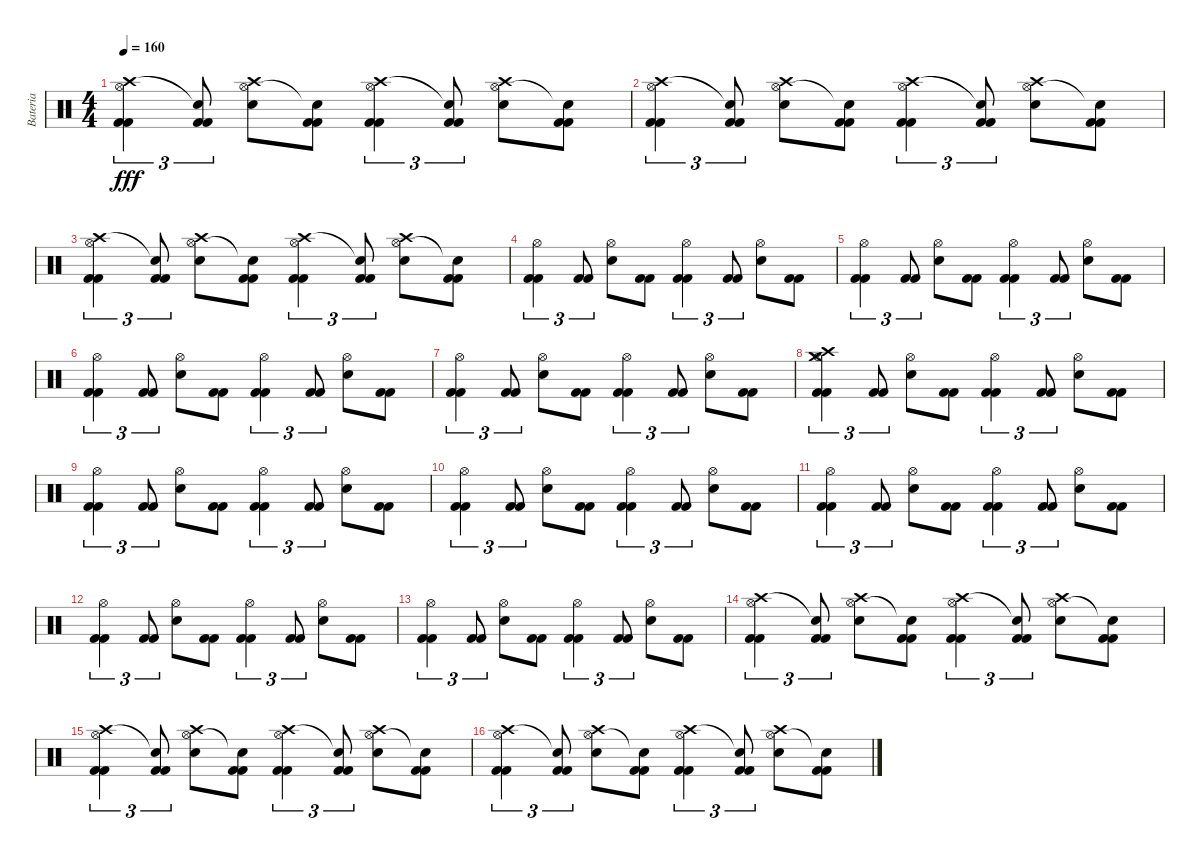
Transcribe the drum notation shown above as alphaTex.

\track ("Bateria" "Bateria") {instrument percussion}
\staff {score}
\articulation defaults
\ts (4 4)
\tempo 160
\clef neutral
\ks c
("Kick (hit) 2" "Kick (hit) 2" "Crash high (hit)" "Hi-Hat (open)").4{tu (3 2) dy fff} ("Kick (hit) 2" "Kick (hit) 2" "Snare (hit)"{t}).8{tu (3 2)} ("Snare (hit) 2" "Crash high (hit)" "Hi-Hat (open)").8 ("Kick (hit) 2" "Kick (hit) 2" "Snare (hit)"{t}).8 ("Kick (hit) 2" "Kick (hit) 2" "Crash high (hit)" "Hi-Hat (open)").4{tu (3 2)} ("Kick (hit) 2" "Kick (hit) 2" "Snare (hit)"{t}).8{tu (3 2)} ("Snare (hit) 2" "Crash high (hit)" "Hi-Hat (open)").8 ("Kick (hit) 2" "Kick (hit) 2" "Snare (hit)"{t}).8 |
("Kick (hit) 2" "Kick (hit) 2" "Crash high (hit)" "Hi-Hat (open)").4{tu (3 2)} ("Kick (hit) 2" "Kick (hit) 2" "Snare (hit)"{t}).8{tu (3 2)} ("Snare (hit) 2" "Crash high (hit)" "Hi-Hat (open)").8 ("Kick (hit) 2" "Kick (hit) 2" "Snare (hit)"{t}).8 ("Kick (hit) 2" "Kick (hit) 2" "Crash high (hit)" "Hi-Hat (open)").4{tu (3 2)} ("Kick (hit) 2" "Kick (hit) 2" "Snare (hit)"{t}).8{tu (3 2)} ("Snare (hit) 2" "Crash high (hit)" "Hi-Hat (open)").8 ("Kick (hit) 2" "Kick (hit) 2" "Snare (hit)"{t}).8 |
("Kick (hit) 2" "Kick (hit) 2" "Crash high (hit)" "Hi-Hat (open)").4{tu (3 2)} ("Kick (hit) 2" "Kick (hit) 2" "Snare (hit)"{t}).8{tu (3 2)} ("Snare (hit) 2" "Crash high (hit)" "Hi-Hat (open)").8 ("Kick (hit) 2" "Kick (hit) 2" "Snare (hit)"{t}).8 ("Kick (hit) 2" "Kick (hit) 2" "Crash high (hit)" "Hi-Hat (open)").4{tu (3 2)} ("Kick (hit) 2" "Kick (hit) 2" "Snare (hit)"{t}).8{tu (3 2)} ("Snare (hit) 2" "Crash high (hit)" "Hi-Hat (open)").8 ("Kick (hit) 2" "Kick (hit) 2" "Snare (hit)"{t}).8 |
("Kick (hit) 2" "Kick (hit) 2" "Hi-Hat (open)").4{tu (3 2)} ("Kick (hit) 2" "Kick (hit) 2").8{tu (3 2)} ("Snare (hit) 2" "Hi-Hat (open)").8 ("Kick (hit) 2" "Kick (hit) 2").8 ("Kick (hit) 2" "Kick (hit) 2" "Hi-Hat (open)").4{tu (3 2)} ("Kick (hit) 2" "Kick (hit) 2").8{tu (3 2)} ("Snare (hit) 2" "Hi-Hat (open)").8 ("Kick (hit) 2" "Kick (hit) 2").8 |
("Kick (hit) 2" "Kick (hit) 2" "Hi-Hat (open)").4{tu (3 2)} ("Kick (hit) 2" "Kick (hit) 2").8{tu (3 2)} ("Snare (hit) 2" "Hi-Hat (open)").8 ("Kick (hit) 2" "Kick (hit) 2").8 ("Kick (hit) 2" "Kick (hit) 2" "Hi-Hat (open)").4{tu (3 2)} ("Kick (hit) 2" "Kick (hit) 2").8{tu (3 2)} ("Snare (hit) 2" "Hi-Hat (open)").8 ("Kick (hit) 2" "Kick (hit) 2").8 |
("Kick (hit) 2" "Kick (hit) 2" "Hi-Hat (open)").4{tu (3 2)} ("Kick (hit) 2" "Kick (hit) 2").8{tu (3 2)} ("Snare (hit) 2" "Hi-Hat (open)").8 ("Kick (hit) 2" "Kick (hit) 2").8 ("Kick (hit) 2" "Kick (hit) 2" "Hi-Hat (open)").4{tu (3 2)} ("Kick (hit) 2" "Kick (hit) 2").8{tu (3 2)} ("Snare (hit) 2" "Hi-Hat (open)").8 ("Kick (hit) 2" "Kick (hit) 2").8 |
("Kick (hit) 2" "Kick (hit) 2" "Hi-Hat (open)").4{tu (3 2)} ("Kick (hit) 2" "Kick (hit) 2").8{tu (3 2)} ("Snare (hit) 2" "Hi-Hat (open)").8 ("Kick (hit) 2" "Kick (hit) 2").8 ("Kick (hit) 2" "Kick (hit) 2" "Hi-Hat (open)").4{tu (3 2)} ("Kick (hit) 2" "Kick (hit) 2").8{tu (3 2)} ("Snare (hit) 2" "Hi-Hat (open)").8 ("Kick (hit) 2" "Kick (hit) 2").8 |
("Kick (hit) 2" "Kick (hit) 2" "Crash medium (hit)" "Crash high (hit)" "Hi-Hat (open)").4{tu (3 2)} ("Kick (hit) 2" "Kick (hit) 2").8{tu (3 2)} ("Snare (hit) 2" "Hi-Hat (open)").8 ("Kick (hit) 2" "Kick (hit) 2").8 ("Kick (hit) 2" "Kick (hit) 2" "Hi-Hat (open)").4{tu (3 2)} ("Kick (hit) 2" "Kick (hit) 2").8{tu (3 2)} ("Snare (hit) 2" "Hi-Hat (open)").8 ("Kick (hit) 2" "Kick (hit) 2").8 |
("Kick (hit) 2" "Kick (hit) 2" "Hi-Hat (open)").4{tu (3 2)} ("Kick (hit) 2" "Kick (hit) 2").8{tu (3 2)} ("Snare (hit) 2" "Hi-Hat (open)").8 ("Kick (hit) 2" "Kick (hit) 2").8 ("Kick (hit) 2" "Kick (hit) 2" "Hi-Hat (open)").4{tu (3 2)} ("Kick (hit) 2" "Kick (hit) 2").8{tu (3 2)} ("Snare (hit) 2" "Hi-Hat (open)").8 ("Kick (hit) 2" "Kick (hit) 2").8 |
("Kick (hit) 2" "Kick (hit) 2" "Hi-Hat (open)").4{tu (3 2)} ("Kick (hit) 2" "Kick (hit) 2").8{tu (3 2)} ("Snare (hit) 2" "Hi-Hat (open)").8 ("Kick (hit) 2" "Kick (hit) 2").8 ("Kick (hit) 2" "Kick (hit) 2" "Hi-Hat (open)").4{tu (3 2)} ("Kick (hit) 2" "Kick (hit) 2").8{tu (3 2)} ("Snare (hit) 2" "Hi-Hat (open)").8 ("Kick (hit) 2" "Kick (hit) 2").8 |
("Kick (hit) 2" "Kick (hit) 2" "Hi-Hat (open)").4{tu (3 2)} ("Kick (hit) 2" "Kick (hit) 2").8{tu (3 2)} ("Snare (hit) 2" "Hi-Hat (open)").8 ("Kick (hit) 2" "Kick (hit) 2").8 ("Kick (hit) 2" "Kick (hit) 2" "Hi-Hat (open)").4{tu (3 2)} ("Kick (hit) 2" "Kick (hit) 2").8{tu (3 2)} ("Snare (hit) 2" "Hi-Hat (open)").8 ("Kick (hit) 2" "Kick (hit) 2").8 |
("Kick (hit) 2" "Kick (hit) 2" "Hi-Hat (open)").4{tu (3 2)} ("Kick (hit) 2" "Kick (hit) 2").8{tu (3 2)} ("Snare (hit) 2" "Hi-Hat (open)").8 ("Kick (hit) 2" "Kick (hit) 2").8 ("Kick (hit) 2" "Kick (hit) 2" "Hi-Hat (open)").4{tu (3 2)} ("Kick (hit) 2" "Kick (hit) 2").8{tu (3 2)} ("Snare (hit) 2" "Hi-Hat (open)").8 ("Kick (hit) 2" "Kick (hit) 2").8 |
("Kick (hit) 2" "Kick (hit) 2" "Hi-Hat (open)").4{tu (3 2)} ("Kick (hit) 2" "Kick (hit) 2").8{tu (3 2)} ("Snare (hit) 2" "Hi-Hat (open)").8 ("Kick (hit) 2" "Kick (hit) 2").8 ("Kick (hit) 2" "Kick (hit) 2" "Hi-Hat (open)").4{tu (3 2)} ("Kick (hit) 2" "Kick (hit) 2").8{tu (3 2)} ("Snare (hit) 2" "Hi-Hat (open)").8 ("Kick (hit) 2" "Kick (hit) 2").8 |
("Kick (hit) 2" "Kick (hit) 2" "Crash high (hit)" "Hi-Hat (open)").4{tu (3 2)} ("Kick (hit) 2" "Kick (hit) 2" "Snare (hit)"{t}).8{tu (3 2)} ("Snare (hit) 2" "Crash high (hit)" "Hi-Hat (open)").8 ("Kick (hit) 2" "Kick (hit) 2" "Snare (hit)"{t}).8 ("Kick (hit) 2" "Kick (hit) 2" "Crash high (hit)" "Hi-Hat (open)").4{tu (3 2)} ("Kick (hit) 2" "Kick (hit) 2" "Snare (hit)"{t}).8{tu (3 2)} ("Snare (hit) 2" "Crash high (hit)" "Hi-Hat (open)").8 ("Kick (hit) 2" "Kick (hit) 2" "Snare (hit)"{t}).8 |
("Kick (hit) 2" "Kick (hit) 2" "Crash high (hit)" "Hi-Hat (open)").4{tu (3 2)} ("Kick (hit) 2" "Kick (hit) 2" "Snare (hit)"{t}).8{tu (3 2)} ("Snare (hit) 2" "Crash high (hit)" "Hi-Hat (open)").8 ("Kick (hit) 2" "Kick (hit) 2" "Snare (hit)"{t}).8 ("Kick (hit) 2" "Kick (hit) 2" "Crash high (hit)" "Hi-Hat (open)").4{tu (3 2)} ("Kick (hit) 2" "Kick (hit) 2" "Snare (hit)"{t}).8{tu (3 2)} ("Snare (hit) 2" "Crash high (hit)" "Hi-Hat (open)").8 ("Kick (hit) 2" "Kick (hit) 2" "Snare (hit)"{t}).8 |
("Kick (hit) 2" "Kick (hit) 2" "Crash high (hit)" "Hi-Hat (open)").4{tu (3 2)} ("Kick (hit) 2" "Kick (hit) 2" "Snare (hit)"{t}).8{tu (3 2)} ("Snare (hit) 2" "Crash high (hit)" "Hi-Hat (open)").8 ("Kick (hit) 2" "Kick (hit) 2" "Snare (hit)"{t}).8 ("Kick (hit) 2" "Kick (hit) 2" "Crash high (hit)" "Hi-Hat (open)").4{tu (3 2)} ("Kick (hit) 2" "Kick (hit) 2" "Snare (hit)"{t}).8{tu (3 2)} ("Snare (hit) 2" "Crash high (hit)" "Hi-Hat (open)").8 ("Kick (hit) 2" "Kick (hit) 2" "Snare (hit)"{t}).8
